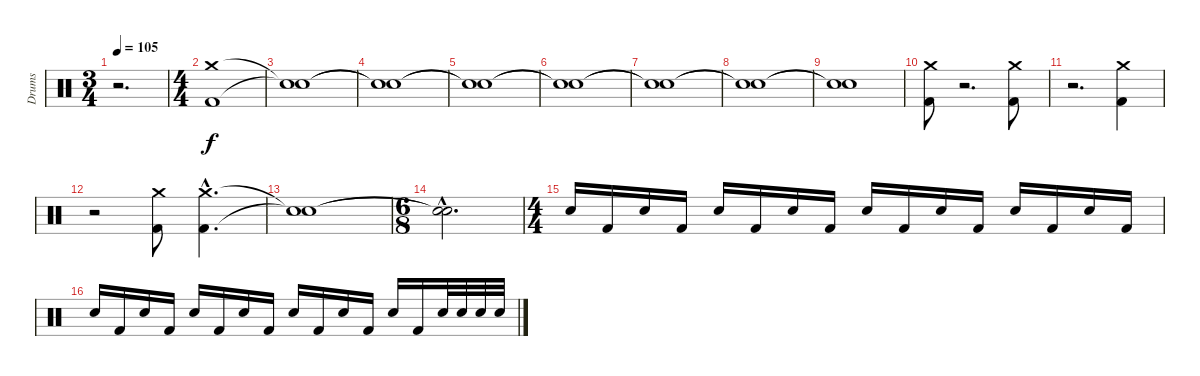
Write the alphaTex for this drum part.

\track ("Drums" "Drums") {instrument percussion}
\staff {score}
\articulation defaults
\ts (3 4)
\tempo 105
\clef neutral
\ks c
r.2{d dy f} |
\ts (4 4)
("Crash medium (hit)" "Kick (hit) 2").1 |
("Snare (hit)"{t} "Snare (hit)"{t}).1 |
("Snare (hit)"{t} "Snare (hit)"{t}).1 |
("Snare (hit)"{t} "Snare (hit)"{t}).1 |
("Snare (hit)"{t} "Snare (hit)"{t}).1 |
("Snare (hit)"{t} "Snare (hit)"{t}).1 |
("Snare (hit)"{t} "Snare (hit)"{t}).1 |
("Snare (hit)"{t} "Snare (hit)"{t}).1 |
("Crash medium (hit)" "Kick (hit) 2").8 r.2{d} ("Crash medium (hit)" "Kick (hit) 2").8 |
r.2{d} ("Crash medium (hit)" "Kick (hit) 2").4 |
r.2 ("Crash medium (hit)" "Kick (hit) 2").8 ("Crash medium (hit)"{hac} "Kick (hit) 2"{hac}).4{d} |
("Snare (hit)"{t} "Snare (hit)"{t}).1 |
\ts (6 8)
("Snare (hit)"{hac t} "Snare (hit)"{hac t}).2{d} |
\ts (4 4)
"Electric Snare (hit)".16 "Kick (hit) 2".16 "Electric Snare (hit)".16 "Kick (hit) 2".16 "Electric Snare (hit)".16 "Kick (hit) 2".16 "Electric Snare (hit)".16 "Kick (hit) 2".16 "Electric Snare (hit)".16 "Kick (hit) 2".16 "Electric Snare (hit)".16 "Kick (hit) 2".16 "Electric Snare (hit)".16 "Kick (hit) 2".16 "Electric Snare (hit)".16 "Kick (hit) 2".16 |
"Electric Snare (hit)".16 "Kick (hit) 2".16 "Electric Snare (hit)".16 "Kick (hit) 2".16 "Electric Snare (hit)".16 "Kick (hit) 2".16 "Electric Snare (hit)".16 "Kick (hit) 2".16 "Electric Snare (hit)".16 "Kick (hit) 2".16 "Electric Snare (hit)".16 "Kick (hit) 2".16 "Electric Snare (hit)".16 "Kick (hit) 2".16 "Electric Snare (hit)".32 "Electric Snare (hit)".32 "Electric Snare (hit)".32 "Electric Snare (hit)".32
